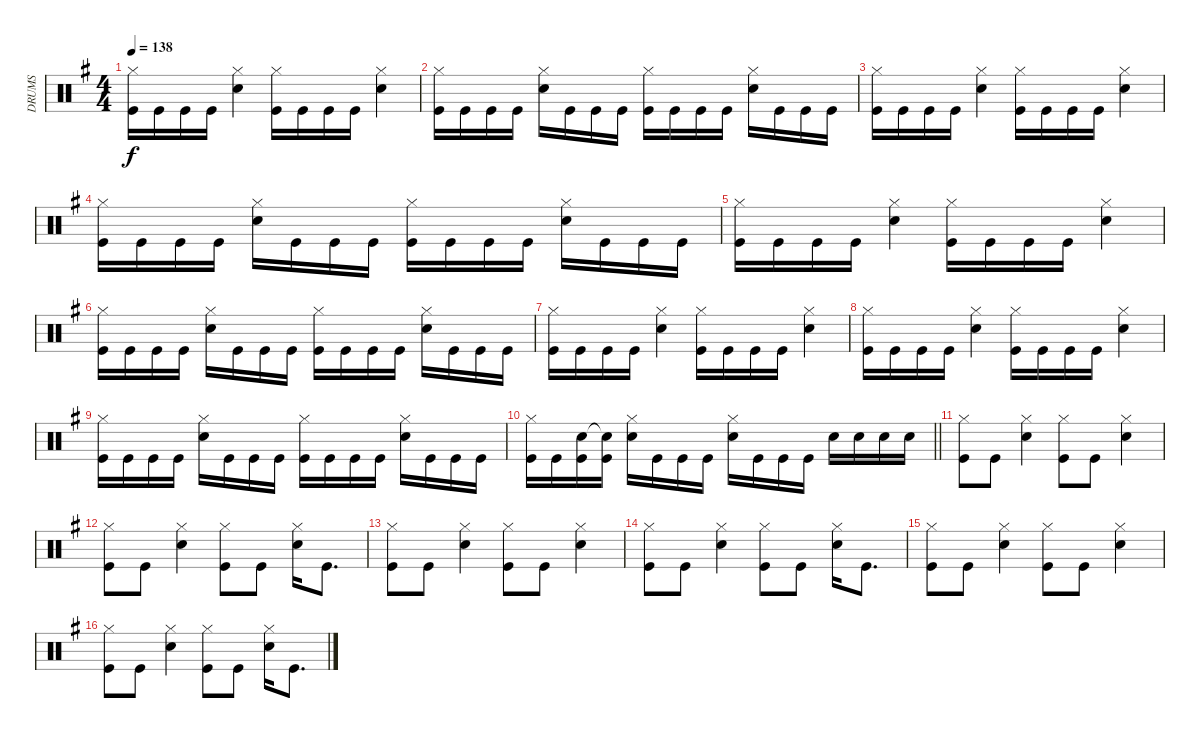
\track ("DRUMS" "DRUMS") {instrument percussion}
\staff {score}
\articulation defaults
\ts (4 4)
\tempo 138
\clef neutral
\ks eminor
("Hi-Hat (closed)" "Kick (hit)").16{dy f} "Kick (hit)".16 "Kick (hit)".16 "Kick (hit)".16 ("Hi-Hat (closed)" "Snare (hit) 2").4 ("Hi-Hat (closed)" "Kick (hit)").16 "Kick (hit)".16 "Kick (hit)".16 "Kick (hit)".16 ("Hi-Hat (closed)" "Snare (hit) 2").4 |
("Hi-Hat (closed)" "Kick (hit)").16 "Kick (hit)".16 "Kick (hit)".16 "Kick (hit)".16 ("Hi-Hat (closed)" "Snare (hit) 2").16 "Kick (hit)".16 "Kick (hit)".16 "Kick (hit)".16 ("Hi-Hat (closed)" "Kick (hit)").16 "Kick (hit)".16 "Kick (hit)".16 "Kick (hit)".16 ("Hi-Hat (closed)" "Snare (hit) 2").16 "Kick (hit)".16 "Kick (hit)".16 "Kick (hit)".16 |
("Hi-Hat (closed)" "Kick (hit)").16 "Kick (hit)".16 "Kick (hit)".16 "Kick (hit)".16 ("Hi-Hat (closed)" "Snare (hit) 2").4 ("Hi-Hat (closed)" "Kick (hit)").16 "Kick (hit)".16 "Kick (hit)".16 "Kick (hit)".16 ("Hi-Hat (closed)" "Snare (hit) 2").4 |
("Hi-Hat (closed)" "Kick (hit)").16 "Kick (hit)".16 "Kick (hit)".16 "Kick (hit)".16 ("Hi-Hat (closed)" "Snare (hit) 2").16 "Kick (hit)".16 "Kick (hit)".16 "Kick (hit)".16 ("Hi-Hat (closed)" "Kick (hit)").16 "Kick (hit)".16 "Kick (hit)".16 "Kick (hit)".16 ("Hi-Hat (closed)" "Snare (hit) 2").16 "Kick (hit)".16 "Kick (hit)".16 "Kick (hit)".16 |
("Hi-Hat (closed)" "Kick (hit)").16 "Kick (hit)".16 "Kick (hit)".16 "Kick (hit)".16 ("Hi-Hat (closed)" "Snare (hit) 2").4 ("Hi-Hat (closed)" "Kick (hit)").16 "Kick (hit)".16 "Kick (hit)".16 "Kick (hit)".16 ("Hi-Hat (closed)" "Snare (hit) 2").4 |
("Hi-Hat (closed)" "Kick (hit)").16 "Kick (hit)".16 "Kick (hit)".16 "Kick (hit)".16 ("Hi-Hat (closed)" "Snare (hit) 2").16 "Kick (hit)".16 "Kick (hit)".16 "Kick (hit)".16 ("Hi-Hat (closed)" "Kick (hit)").16 "Kick (hit)".16 "Kick (hit)".16 "Kick (hit)".16 ("Hi-Hat (closed)" "Snare (hit) 2").16 "Kick (hit)".16 "Kick (hit)".16 "Kick (hit)".16 |
("Hi-Hat (closed)" "Kick (hit)").16 "Kick (hit)".16 "Kick (hit)".16 "Kick (hit)".16 ("Hi-Hat (closed)" "Snare (hit) 2").4 ("Hi-Hat (closed)" "Kick (hit)").16 "Kick (hit)".16 "Kick (hit)".16 "Kick (hit)".16 ("Hi-Hat (closed)" "Snare (hit) 2").4 |
("Hi-Hat (closed)" "Kick (hit)").16 "Kick (hit)".16 "Kick (hit)".16 "Kick (hit)".16 ("Hi-Hat (closed)" "Snare (hit) 2").4 ("Hi-Hat (closed)" "Kick (hit)").16 "Kick (hit)".16 "Kick (hit)".16 "Kick (hit)".16 ("Hi-Hat (closed)" "Snare (hit) 2").4 |
("Hi-Hat (closed)" "Kick (hit)").16 "Kick (hit)".16 "Kick (hit)".16 "Kick (hit)".16 ("Hi-Hat (closed)" "Snare (hit) 2").16 "Kick (hit)".16 "Kick (hit)".16 "Kick (hit)".16 ("Hi-Hat (closed)" "Kick (hit)").16 "Kick (hit)".16 "Kick (hit)".16 "Kick (hit)".16 ("Hi-Hat (closed)" "Snare (hit) 2").16 "Kick (hit)".16 "Kick (hit)".16 "Kick (hit)".16 |
\barLineRight lightlight
("Hi-Hat (closed)" "Kick (hit)").16 "Kick (hit)".16 ("Snare (hit) 2" "Kick (hit)").16 ("Snare (hit)"{t} "Kick (hit)").16 ("Hi-Hat (closed)" "Snare (hit) 2").16 "Kick (hit)".16 "Kick (hit)".16 "Kick (hit)".16 ("Hi-Hat (closed)" "Snare (hit) 2").16 "Kick (hit)".16 "Kick (hit)".16 "Kick (hit)".16 "Snare (hit) 2".16 "Snare (hit) 2".16 "Snare (hit) 2".16 "Snare (hit) 2".16 |
("Hi-Hat (closed)" "Kick (hit)").8 "Kick (hit)".8 ("Hi-Hat (closed)" "Snare (hit) 2").4 ("Hi-Hat (closed)" "Kick (hit)").8 "Kick (hit)".8 ("Hi-Hat (closed)" "Snare (hit) 2").4 |
("Hi-Hat (closed)" "Kick (hit)").8 "Kick (hit)".8 ("Hi-Hat (closed)" "Snare (hit) 2").4 ("Hi-Hat (closed)" "Kick (hit)").8 "Kick (hit)".8 ("Hi-Hat (closed)" "Snare (hit) 2").16 "Kick (hit)".8{d} |
("Hi-Hat (closed)" "Kick (hit)").8 "Kick (hit)".8 ("Hi-Hat (closed)" "Snare (hit) 2").4 ("Hi-Hat (closed)" "Kick (hit)").8 "Kick (hit)".8 ("Hi-Hat (closed)" "Snare (hit) 2").4 |
("Hi-Hat (closed)" "Kick (hit)").8 "Kick (hit)".8 ("Hi-Hat (closed)" "Snare (hit) 2").4 ("Hi-Hat (closed)" "Kick (hit)").8 "Kick (hit)".8 ("Hi-Hat (closed)" "Snare (hit) 2").16 "Kick (hit)".8{d} |
("Hi-Hat (closed)" "Kick (hit)").8 "Kick (hit)".8 ("Hi-Hat (closed)" "Snare (hit) 2").4 ("Hi-Hat (closed)" "Kick (hit)").8 "Kick (hit)".8 ("Hi-Hat (closed)" "Snare (hit) 2").4 |
("Hi-Hat (closed)" "Kick (hit)").8 "Kick (hit)".8 ("Hi-Hat (closed)" "Snare (hit) 2").4 ("Hi-Hat (closed)" "Kick (hit)").8 "Kick (hit)".8 ("Hi-Hat (closed)" "Snare (hit) 2").16 "Kick (hit)".8{d}
